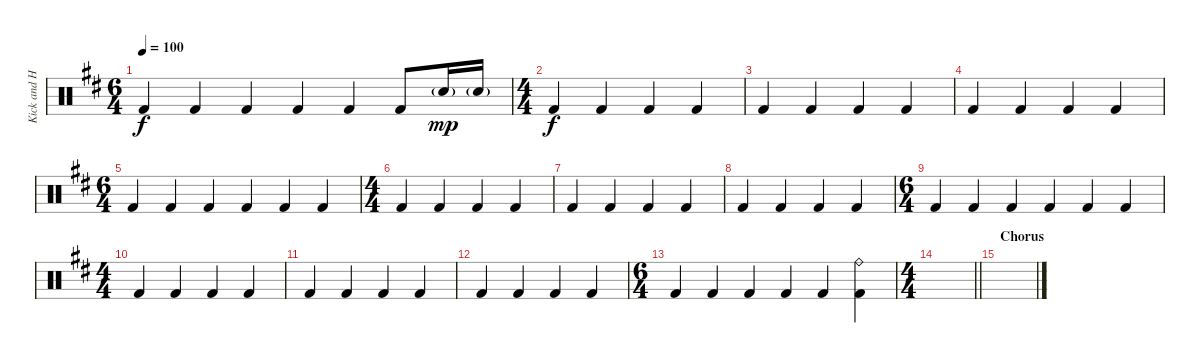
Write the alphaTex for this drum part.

\track ("Kick and HiHat" "Kick and H") {instrument percussion}
\staff {score}
\articulation defaults
\ts (6 4)
\tempo 100
\clef neutral
\ks d "Kick (hit) 2".4{dy f} "Kick (hit) 2".4 "Kick (hit) 2".4 "Kick (hit) 2".4 "Kick (hit) 2".4 "Kick (hit) 2".8 "Snare (hit) 2"{g}.16{dy mp} "Snare (hit) 2"{g}.16
|
\ts (4 4)
"Kick (hit) 2".4{dy f} "Kick (hit) 2".4 "Kick (hit) 2".4 "Kick (hit) 2".4 |
"Kick (hit) 2".4 "Kick (hit) 2".4 "Kick (hit) 2".4 "Kick (hit) 2".4 |
"Kick (hit) 2".4 "Kick (hit) 2".4 "Kick (hit) 2".4 "Kick (hit) 2".4 |
\ts (6 4)
"Kick (hit) 2".4 "Kick (hit) 2".4 "Kick (hit) 2".4 "Kick (hit) 2".4 "Kick (hit) 2".4 "Kick (hit) 2".4 |
\ts (4 4)
"Kick (hit) 2".4 "Kick (hit) 2".4 "Kick (hit) 2".4 "Kick (hit) 2".4 |
"Kick (hit) 2".4 "Kick (hit) 2".4 "Kick (hit) 2".4 "Kick (hit) 2".4 |
"Kick (hit) 2".4 "Kick (hit) 2".4 "Kick (hit) 2".4 "Kick (hit) 2".4 |
\ts (6 4)
"Kick (hit) 2".4 "Kick (hit) 2".4 "Kick (hit) 2".4 "Kick (hit) 2".4 "Kick (hit) 2".4 "Kick (hit) 2".4 |
\ts (4 4)
"Kick (hit) 2".4 "Kick (hit) 2".4 "Kick (hit) 2".4 "Kick (hit) 2".4 |
"Kick (hit) 2".4 "Kick (hit) 2".4 "Kick (hit) 2".4 "Kick (hit) 2".4 |
"Kick (hit) 2".4 "Kick (hit) 2".4 "Kick (hit) 2".4 "Kick (hit) 2".4 |
\ts (6 4)
"Kick (hit) 2".4 "Kick (hit) 2".4 "Kick (hit) 2".4 "Kick (hit) 2".4 "Kick (hit) 2".4 ("Ride (bell)" "Kick (hit) 2").4 |
\ts (4 4)
\barLineRight lightlight
|
\section ("" "Chorus")
